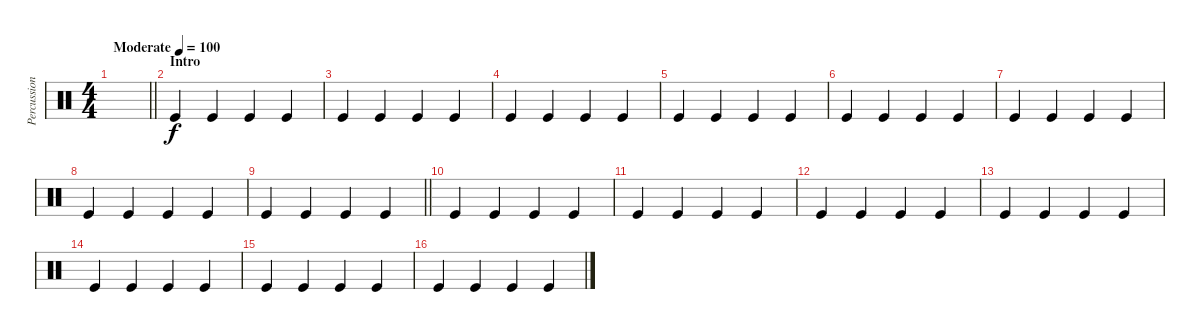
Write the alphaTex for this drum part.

\track ("Percussion" "Percussion") {instrument percussion}
\staff {score}
\articulation defaults
\ts (4 4)
\tempo (100 "Moderate")
\clef neutral
\barLineRight lightlight
\ks c
|
\section ("" "Intro")
"Kick (hit)".4 "Kick (hit)".4 "Kick (hit)".4 "Kick (hit)".4 |
"Kick (hit)".4 "Kick (hit)".4 "Kick (hit)".4 "Kick (hit)".4 |
"Kick (hit)".4 "Kick (hit)".4 "Kick (hit)".4 "Kick (hit)".4 |
"Kick (hit)".4 "Kick (hit)".4 "Kick (hit)".4 "Kick (hit)".4 |
"Kick (hit)".4 "Kick (hit)".4 "Kick (hit)".4 "Kick (hit)".4 |
"Kick (hit)".4 "Kick (hit)".4 "Kick (hit)".4 "Kick (hit)".4 |
"Kick (hit)".4 "Kick (hit)".4 "Kick (hit)".4 "Kick (hit)".4 |
\barLineRight lightlight "Kick (hit)".4 "Kick (hit)".4 "Kick (hit)".4 "Kick (hit)".4
|
"Kick (hit)".4 "Kick (hit)".4 "Kick (hit)".4 "Kick (hit)".4 |
"Kick (hit)".4 "Kick (hit)".4 "Kick (hit)".4 "Kick (hit)".4 |
"Kick (hit)".4 "Kick (hit)".4 "Kick (hit)".4 "Kick (hit)".4 |
"Kick (hit)".4 "Kick (hit)".4 "Kick (hit)".4 "Kick (hit)".4 |
"Kick (hit)".4 "Kick (hit)".4 "Kick (hit)".4 "Kick (hit)".4 |
"Kick (hit)".4 "Kick (hit)".4 "Kick (hit)".4 "Kick (hit)".4 |
"Kick (hit)".4 "Kick (hit)".4 "Kick (hit)".4 "Kick (hit)".4
